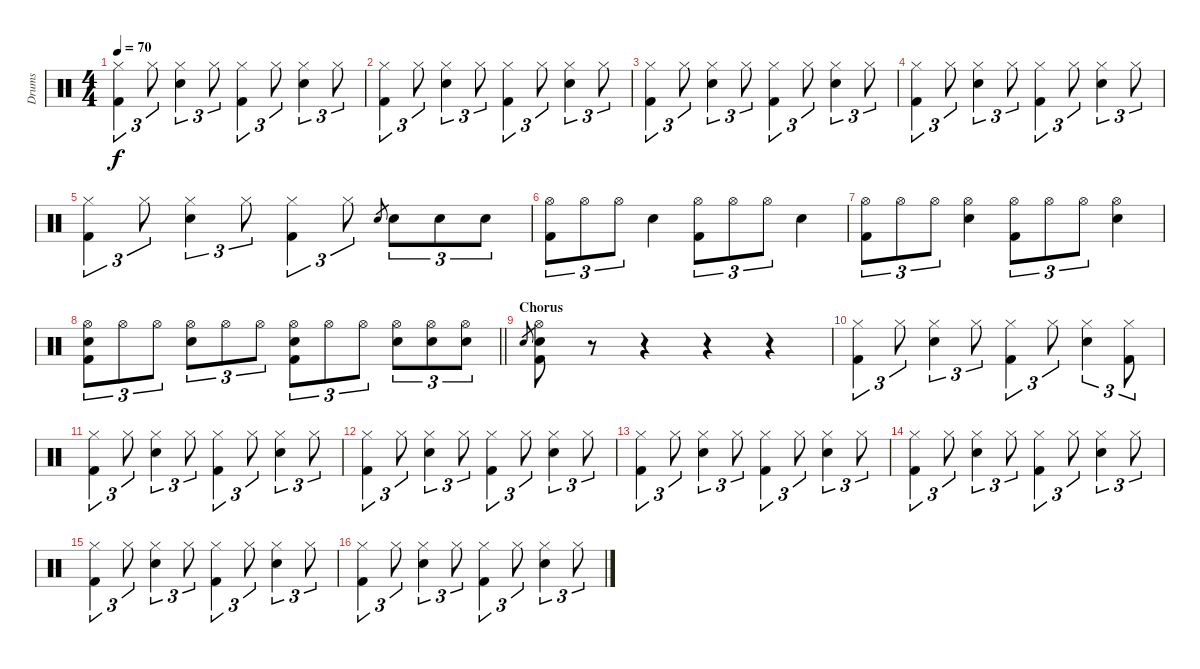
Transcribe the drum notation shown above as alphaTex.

\track ("Drums" "Drums") {instrument percussion}
\staff {score}
\articulation defaults
\ts (4 4)
\tempo 70
\clef neutral
\ks c
("Hi-Hat (closed)" "Kick (hit) 2").4{tu (3 2) dy f} "Hi-Hat (closed)".8{tu (3 2)} ("Hi-Hat (closed)" "Snare (hit) 2").4{tu (3 2)} "Hi-Hat (closed)".8{tu (3 2)} ("Hi-Hat (closed)" "Kick (hit) 2").4{tu (3 2)} "Hi-Hat (closed)".8{tu (3 2)} ("Hi-Hat (closed)" "Snare (hit) 2").4{tu (3 2)} "Hi-Hat (closed)".8{tu (3 2)} |
("Hi-Hat (closed)" "Kick (hit) 2").4{tu (3 2)} "Hi-Hat (closed)".8{tu (3 2)} ("Hi-Hat (closed)" "Snare (hit) 2").4{tu (3 2)} "Hi-Hat (closed)".8{tu (3 2)} ("Hi-Hat (closed)" "Kick (hit) 2").4{tu (3 2)} "Hi-Hat (closed)".8{tu (3 2)} ("Hi-Hat (closed)" "Snare (hit) 2").4{tu (3 2)} "Hi-Hat (closed)".8{tu (3 2)} |
("Hi-Hat (closed)" "Kick (hit) 2").4{tu (3 2)} "Hi-Hat (closed)".8{tu (3 2)} ("Hi-Hat (closed)" "Snare (hit) 2").4{tu (3 2)} "Hi-Hat (closed)".8{tu (3 2)} ("Hi-Hat (closed)" "Kick (hit) 2").4{tu (3 2)} "Hi-Hat (closed)".8{tu (3 2)} ("Hi-Hat (closed)" "Snare (hit) 2").4{tu (3 2)} "Hi-Hat (closed)".8{tu (3 2)} |
("Hi-Hat (closed)" "Kick (hit) 2").4{tu (3 2)} "Hi-Hat (closed)".8{tu (3 2)} ("Hi-Hat (closed)" "Snare (hit) 2").4{tu (3 2)} "Hi-Hat (closed)".8{tu (3 2)} ("Hi-Hat (closed)" "Kick (hit) 2").4{tu (3 2)} "Hi-Hat (closed)".8{tu (3 2)} ("Hi-Hat (closed)" "Snare (hit) 2").4{tu (3 2)} "Hi-Hat (closed)".8{tu (3 2)} |
("Hi-Hat (closed)" "Kick (hit) 2").4{tu (3 2)} "Hi-Hat (closed)".8{tu (3 2)} ("Hi-Hat (closed)" "Snare (hit) 2").4{tu (3 2)} "Hi-Hat (closed)".8{tu (3 2)} ("Hi-Hat (closed)" "Kick (hit) 2").4{tu (3 2)} "Hi-Hat (closed)".8{tu (3 2)} "Snare (hit) 2".8{gr} "Snare (hit) 2".8{tu (3 2)} "Snare (hit) 2".8{tu (3 2)} "Snare (hit) 2".8{tu (3 2)} |
("Hi-Hat (open)" "Kick (hit) 2").8{tu (3 2)} "Hi-Hat (open)".8{tu (3 2)} "Hi-Hat (open)".8{tu (3 2)} "Snare (hit) 2".4 ("Hi-Hat (open)" "Kick (hit) 2").8{tu (3 2)} "Hi-Hat (open)".8{tu (3 2)} "Hi-Hat (open)".8{tu (3 2)} "Snare (hit) 2".4 |
("Hi-Hat (open)" "Kick (hit) 2").8{tu (3 2)} "Hi-Hat (open)".8{tu (3 2)} "Hi-Hat (open)".8{tu (3 2)} ("Hi-Hat (open)" "Snare (hit) 2").4 ("Hi-Hat (open)" "Kick (hit) 2").8{tu (3 2)} "Hi-Hat (open)".8{tu (3 2)} "Hi-Hat (open)".8{tu (3 2)} ("Hi-Hat (open)" "Snare (hit) 2").4 |
\barLineRight lightlight
("Hi-Hat (open)" "Snare (hit) 2" "Kick (hit) 2").8{tu (3 2)} "Hi-Hat (open)".8{tu (3 2)} "Hi-Hat (open)".8{tu (3 2)} ("Hi-Hat (open)" "Snare (hit) 2").8{tu (3 2)} "Hi-Hat (open)".8{tu (3 2)} "Hi-Hat (open)".8{tu (3 2)} ("Hi-Hat (open)" "Snare (hit) 2" "Kick (hit) 2").8{tu (3 2)} "Hi-Hat (open)".8{tu (3 2)} "Hi-Hat (open)".8{tu (3 2)} ("Hi-Hat (open)" "Snare (hit) 2").8{tu (3 2)} ("Hi-Hat (open)" "Snare (hit) 2").8{tu (3 2)} ("Hi-Hat (open)" "Snare (hit) 2").8{tu (3 2)} |
\section ("" "Chorus")
"Snare (hit) 2".8{gr} ("Hi-Hat (open)" "Snare (hit) 2" "Kick (hit) 2").8 r.8 r.4 r.4 r.4 |
("Hi-Hat (closed)" "Kick (hit) 2").4{tu (3 2)} "Hi-Hat (closed)".8{tu (3 2)} ("Hi-Hat (closed)" "Snare (hit) 2").4{tu (3 2)} "Hi-Hat (closed)".8{tu (3 2)} ("Hi-Hat (closed)" "Kick (hit) 2").4{tu (3 2)} "Hi-Hat (closed)".8{tu (3 2)} ("Hi-Hat (closed)" "Snare (hit) 2").4{tu (3 2)} ("Hi-Hat (closed)" "Kick (hit) 2").8{tu (3 2)} |
("Hi-Hat (closed)" "Kick (hit) 2").4{tu (3 2)} "Hi-Hat (closed)".8{tu (3 2)} ("Hi-Hat (closed)" "Snare (hit) 2").4{tu (3 2)} "Hi-Hat (closed)".8{tu (3 2)} ("Hi-Hat (closed)" "Kick (hit) 2").4{tu (3 2)} "Hi-Hat (closed)".8{tu (3 2)} ("Hi-Hat (closed)" "Snare (hit) 2").4{tu (3 2)} "Hi-Hat (closed)".8{tu (3 2)} |
("Hi-Hat (closed)" "Kick (hit) 2").4{tu (3 2)} "Hi-Hat (closed)".8{tu (3 2)} ("Hi-Hat (closed)" "Snare (hit) 2").4{tu (3 2)} "Hi-Hat (closed)".8{tu (3 2)} ("Hi-Hat (closed)" "Kick (hit) 2").4{tu (3 2)} "Hi-Hat (closed)".8{tu (3 2)} ("Hi-Hat (closed)" "Snare (hit) 2").4{tu (3 2)} "Hi-Hat (closed)".8{tu (3 2)} |
("Hi-Hat (closed)" "Kick (hit) 2").4{tu (3 2)} "Hi-Hat (closed)".8{tu (3 2)} ("Hi-Hat (closed)" "Snare (hit) 2").4{tu (3 2)} "Hi-Hat (closed)".8{tu (3 2)} ("Hi-Hat (closed)" "Kick (hit) 2").4{tu (3 2)} "Hi-Hat (closed)".8{tu (3 2)} ("Hi-Hat (closed)" "Snare (hit) 2").4{tu (3 2)} "Hi-Hat (closed)".8{tu (3 2)} |
("Hi-Hat (closed)" "Kick (hit) 2").4{tu (3 2)} "Hi-Hat (closed)".8{tu (3 2)} ("Hi-Hat (closed)" "Snare (hit) 2").4{tu (3 2)} "Hi-Hat (closed)".8{tu (3 2)} ("Hi-Hat (closed)" "Kick (hit) 2").4{tu (3 2)} "Hi-Hat (closed)".8{tu (3 2)} ("Hi-Hat (closed)" "Snare (hit) 2").4{tu (3 2)} "Hi-Hat (closed)".8{tu (3 2)} |
("Hi-Hat (closed)" "Kick (hit) 2").4{tu (3 2)} "Hi-Hat (closed)".8{tu (3 2)} ("Hi-Hat (closed)" "Snare (hit) 2").4{tu (3 2)} "Hi-Hat (closed)".8{tu (3 2)} ("Hi-Hat (closed)" "Kick (hit) 2").4{tu (3 2)} "Hi-Hat (closed)".8{tu (3 2)} ("Hi-Hat (closed)" "Snare (hit) 2").4{tu (3 2)} "Hi-Hat (closed)".8{tu (3 2)} |
("Hi-Hat (closed)" "Kick (hit) 2").4{tu (3 2)} "Hi-Hat (closed)".8{tu (3 2)} ("Hi-Hat (closed)" "Snare (hit) 2").4{tu (3 2)} "Hi-Hat (closed)".8{tu (3 2)} ("Hi-Hat (closed)" "Kick (hit) 2").4{tu (3 2)} "Hi-Hat (closed)".8{tu (3 2)} ("Hi-Hat (closed)" "Snare (hit) 2").4{tu (3 2)} "Hi-Hat (closed)".8{tu (3 2)}
